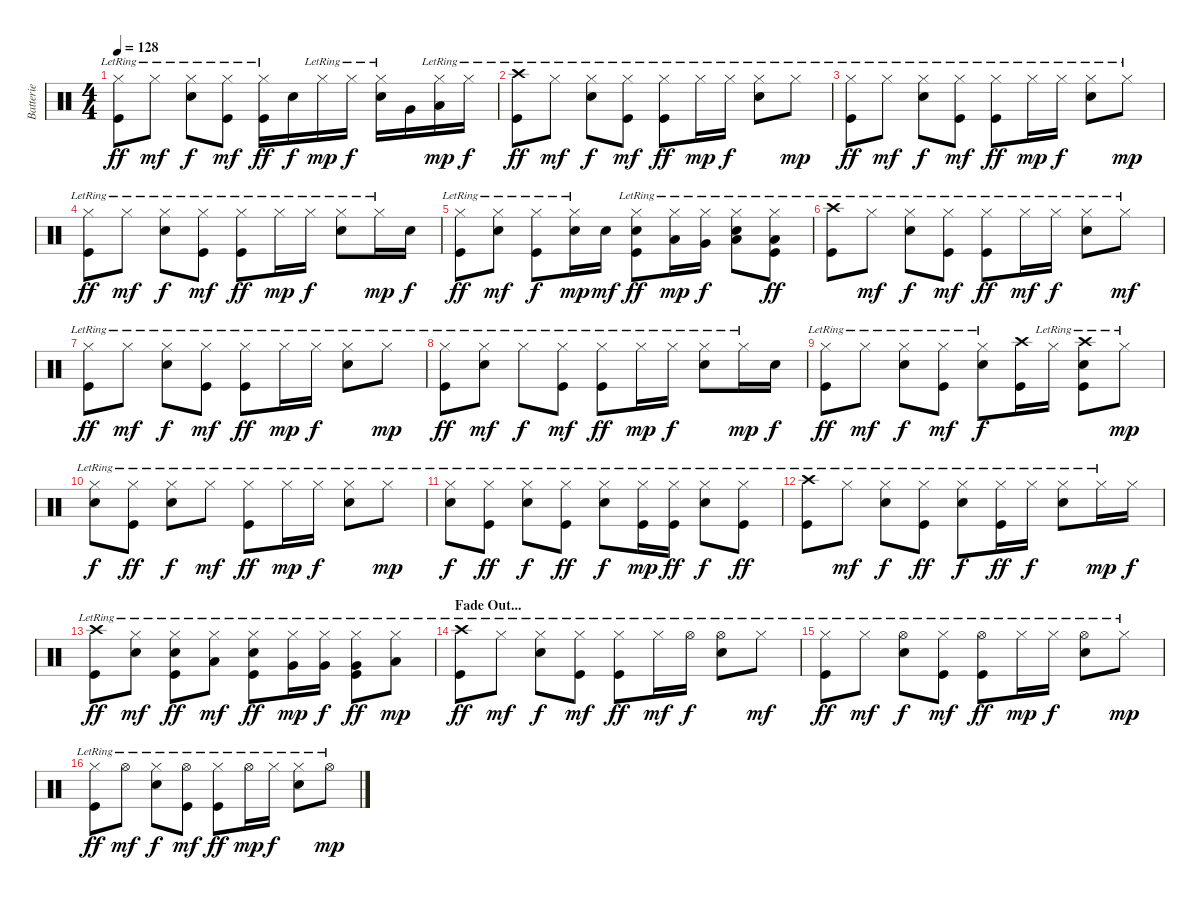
\track ("Batterie" "Batterie") {instrument percussion}
\staff {score}
\articulation defaults
\ts (4 4)
\tempo 128
\clef neutral
\ks c
("Hi-Hat (closed)"{lr} "Kick (hit)"{lr}).8{dy ff} "Hi-Hat (closed)"{lr}.8{dy mf} ("Hi-Hat (closed)"{lr} "Snare (hit) 2"{lr}).8{dy f} ("Hi-Hat (closed)"{lr} "Kick (hit)"{lr}).8{dy mf} ("Hi-Hat (closed)"{lr} "Kick (hit)"{lr}).16{dy ff} "Snare (hit) 2".16{dy f} "Hi-Hat (closed)"{lr}.16{dy mp} "Hi-Hat (closed)"{lr}.16{dy f} ("Hi-Hat (closed)"{lr} "Snare (hit) 2"{lr}).16 "Very Low Tom (hit)".16 ("Low Floor Tom (hit)" "Hi-Hat (closed)"{lr}).16{dy mp} "Hi-Hat (closed)"{lr}.16{dy f} |
("Crash high (hit)" "Kick (hit)"{lr}).8{dy ff} "Hi-Hat (closed)"{lr}.8{dy mf} ("Hi-Hat (closed)"{lr} "Snare (hit) 2"{lr}).8{dy f} ("Hi-Hat (closed)"{lr} "Kick (hit)"{lr}).8{dy mf} ("Hi-Hat (closed)"{lr} "Kick (hit)"{lr}).8{dy ff} "Hi-Hat (closed)"{lr}.16{dy mp} "Hi-Hat (closed)"{lr}.16{dy f} ("Hi-Hat (closed)"{lr} "Snare (hit) 2"{lr}).8 "Hi-Hat (closed)"{lr}.8{dy mp} |
("Hi-Hat (closed)"{lr} "Kick (hit)"{lr}).8{dy ff} "Hi-Hat (closed)"{lr}.8{dy mf} ("Hi-Hat (closed)"{lr} "Snare (hit) 2"{lr}).8{dy f} ("Hi-Hat (closed)"{lr} "Kick (hit)"{lr}).8{dy mf} ("Hi-Hat (closed)"{lr} "Kick (hit)"{lr}).8{dy ff} "Hi-Hat (closed)"{lr}.16{dy mp} "Hi-Hat (closed)"{lr}.16{dy f} ("Hi-Hat (closed)"{lr} "Snare (hit) 2"{lr}).8 "Hi-Hat (closed)"{lr}.8{dy mp} |
("Hi-Hat (closed)"{lr} "Kick (hit)"{lr}).8{dy ff} "Hi-Hat (closed)"{lr}.8{dy mf} ("Hi-Hat (closed)"{lr} "Snare (hit) 2"{lr}).8{dy f} ("Hi-Hat (closed)"{lr} "Kick (hit)"{lr}).8{dy mf} ("Hi-Hat (closed)"{lr} "Kick (hit)"{lr}).8{dy ff} "Hi-Hat (closed)"{lr}.16{dy mp} "Hi-Hat (closed)"{lr}.16{dy f} ("Hi-Hat (closed)"{lr} "Snare (hit) 2"{lr}).8 "Hi-Hat (closed)"{lr}.16{dy mp} "Snare (hit) 2".16{dy f} |
("Hi-Hat (closed)"{lr} "Kick (hit)"{lr}).8{dy ff} ("Hi-Hat (closed)"{lr} "Snare (hit) 2").8{dy mf} ("Hi-Hat (closed)"{lr} "Kick (hit)").8{dy f} ("Hi-Hat (closed)"{lr} "Snare (hit) 2").16{dy mp} "Snare (hit) 2".16{dy mf} ("Hi-Hat (closed)"{lr} "Snare (hit) 2" "Kick (hit)"{lr}).8{dy ff} ("Low Tom (hit)" "Hi-Hat (closed)"{lr}).16{dy mp} ("Very Low Tom (hit)" "Hi-Hat (closed)"{lr}).16{dy f} ("Low Floor Tom (hit)" "Hi-Hat (closed)"{lr} "Snare (hit) 2"{lr}).8 ("Low Floor Tom (hit)" "Hi-Hat (closed)"{lr} "Kick (hit)"{lr}).8{dy ff} |
("Crash high (hit)"{lr} "Kick (hit)"{lr}).8 "Hi-Hat (closed)"{lr}.8{dy mf} ("Hi-Hat (closed)"{lr} "Snare (hit) 2"{lr}).8{dy f} ("Hi-Hat (closed)"{lr} "Kick (hit)"{lr}).8{dy mf} ("Hi-Hat (closed)"{lr} "Kick (hit)"{lr}).8{dy ff} "Hi-Hat (closed)"{lr}.16{dy mf} "Hi-Hat (closed)"{lr}.16{dy f} ("Hi-Hat (closed)"{lr} "Snare (hit) 2"{lr}).8 "Hi-Hat (closed)"{lr}.8{dy mf} |
("Hi-Hat (closed)"{lr} "Kick (hit)"{lr}).8{dy ff} "Hi-Hat (closed)"{lr}.8{dy mf} ("Hi-Hat (closed)"{lr} "Snare (hit) 2"{lr}).8{dy f} ("Hi-Hat (closed)"{lr} "Kick (hit)"{lr}).8{dy mf} ("Hi-Hat (closed)"{lr} "Kick (hit)"{lr}).8{dy ff} "Hi-Hat (closed)"{lr}.16{dy mp} "Hi-Hat (closed)"{lr}.16{dy f} ("Hi-Hat (closed)"{lr} "Snare (hit) 2"{lr}).8 "Hi-Hat (closed)"{lr}.8{dy mp} |
("Hi-Hat (closed)"{lr} "Kick (hit)"{lr}).8{dy ff} ("Hi-Hat (closed)"{lr} "Snare (hit) 2").8{dy mf} "Hi-Hat (closed)"{lr}.8{dy f} ("Hi-Hat (closed)"{lr} "Kick (hit)"{lr}).8{dy mf} ("Hi-Hat (closed)"{lr} "Kick (hit)"{lr}).8{dy ff} "Hi-Hat (closed)"{lr}.16{dy mp} "Hi-Hat (closed)"{lr}.16{dy f} ("Hi-Hat (closed)"{lr} "Snare (hit) 2"{lr}).8 "Hi-Hat (closed)"{lr}.16{dy mp} "Snare (hit) 2".16{dy f} |
("Hi-Hat (closed)"{lr} "Kick (hit)"{lr}).8{dy ff} "Hi-Hat (closed)"{lr}.8{dy mf} ("Hi-Hat (closed)"{lr} "Snare (hit) 2"{lr}).8{dy f} ("Hi-Hat (closed)"{lr} "Kick (hit)"{lr}).8{dy mf} ("Hi-Hat (closed)"{lr} "Snare (hit) 2").8{dy f} ("Crash high (hit)" "Kick (hit)").16 "Hi-Hat (closed)"{lr}.16 ("Crash high (hit)" "Snare (hit) 2"{lr} "Kick (hit)").8 "Hi-Hat (closed)"{lr}.8{dy mp} |
("Hi-Hat (closed)"{lr} "Snare (hit) 2").8{dy f} ("Hi-Hat (closed)"{lr} "Kick (hit)").8{dy ff} ("Hi-Hat (closed)"{lr} "Snare (hit) 2"{lr}).8{dy f} "Hi-Hat (closed)"{lr}.8{dy mf} ("Hi-Hat (closed)"{lr} "Kick (hit)"{lr}).8{dy ff} "Hi-Hat (closed)"{lr}.16{dy mp} "Hi-Hat (closed)"{lr}.16{dy f} ("Hi-Hat (closed)"{lr} "Snare (hit) 2"{lr}).8 "Hi-Hat (closed)"{lr}.8{dy mp} |
("Hi-Hat (closed)"{lr} "Snare (hit) 2").8{dy f} ("Hi-Hat (closed)"{lr} "Kick (hit)").8{dy ff} ("Hi-Hat (closed)"{lr} "Snare (hit) 2"{lr}).8{dy f} ("Hi-Hat (closed)"{lr} "Kick (hit)"{lr}).8{dy ff} ("Hi-Hat (closed)"{lr} "Snare (hit) 2").8{dy f} ("Hi-Hat (closed)"{lr} "Kick (hit)").16{dy mp} ("Hi-Hat (closed)"{lr} "Kick (hit)").16{dy ff} ("Hi-Hat (closed)"{lr} "Snare (hit) 2"{lr}).8{dy f} ("Hi-Hat (closed)"{lr} "Kick (hit)").8{dy ff} |
("Crash high (hit)" "Kick (hit)"{lr}).8 "Hi-Hat (closed)"{lr}.8{dy mf} ("Hi-Hat (closed)"{lr} "Snare (hit) 2"{lr}).8{dy f} ("Hi-Hat (closed)"{lr} "Kick (hit)"{lr}).8{dy ff} ("Hi-Hat (closed)"{lr} "Snare (hit) 2").8{dy f} ("Hi-Hat (closed)"{lr} "Kick (hit)").16{dy ff} "Hi-Hat (closed)"{lr}.16{dy f} ("Hi-Hat (closed)"{lr} "Snare (hit) 2"{lr}).8 "Hi-Hat (closed)"{lr}.16{dy mp} "Hi-Hat (closed)".16{dy f} |
("Crash high (hit)"{lr} "Kick (hit)"{lr}).8{dy ff} ("Hi-Hat (closed)"{lr} "Snare (hit) 2").8{dy mf} ("Hi-Hat (closed)"{lr} "Snare (hit) 2" "Kick (hit)").8{dy ff} ("Low Tom (hit)" "Hi-Hat (closed)"{lr}).8{dy mf} ("Hi-Hat (closed)"{lr} "Snare (hit) 2" "Kick (hit)").8{dy ff} ("Very Low Tom (hit)" "Hi-Hat (closed)"{lr}).16{dy mp} ("Very Low Tom (hit)" "Hi-Hat (closed)"{lr}).16{dy f} ("Very Low Tom (hit)" "Hi-Hat (closed)"{lr} "Kick (hit)").8{dy ff} ("Low Floor Tom (hit)" "Hi-Hat (closed)"{lr}).8{dy mp} |
\section ("" "Fade Out...")
("Crash high (hit)"{lr} "Kick (hit)"{lr}).8{dy ff} "Hi-Hat (closed)"{lr}.8{dy mf} ("Hi-Hat (closed)"{lr} "Snare (hit) 2"{lr}).8{dy f} ("Hi-Hat (closed)"{lr} "Kick (hit)"{lr}).8{dy mf} ("Hi-Hat (closed)"{lr} "Kick (hit)"{lr}).8{dy ff} "Hi-Hat (closed)"{lr}.16{dy mf} "Hi-Hat (open)"{lr}.16{dy f} ("Hi-Hat (open)"{lr} "Snare (hit) 2"{lr}).8 "Hi-Hat (closed)"{lr}.8{dy mf} |
("Hi-Hat (closed)"{lr} "Kick (hit)"{lr}).8{dy ff} "Hi-Hat (closed)"{lr}.8{dy mf} ("Hi-Hat (open)"{lr} "Snare (hit) 2"{lr}).8{dy f} ("Hi-Hat (closed)"{lr} "Kick (hit)"{lr}).8{dy mf} ("Hi-Hat (open)"{lr} "Kick (hit)"{lr}).8{dy ff} "Hi-Hat (closed)"{lr}.16{dy mp} "Hi-Hat (closed)"{lr}.16{dy f} ("Hi-Hat (open)"{lr} "Snare (hit) 2"{lr}).8 "Hi-Hat (closed)"{lr}.8{dy mp} |
("Hi-Hat (closed)"{lr} "Kick (hit)"{lr}).8{dy ff} "Hi-Hat (open)"{lr}.8{dy mf} ("Hi-Hat (closed)"{lr} "Snare (hit) 2"{lr}).8{dy f} ("Hi-Hat (open)"{lr} "Kick (hit)"{lr}).8{dy mf} ("Hi-Hat (closed)"{lr} "Kick (hit)"{lr}).8{dy ff} "Hi-Hat (open)"{lr}.16{dy mp} "Hi-Hat (closed)"{lr}.16{dy f} ("Hi-Hat (closed)"{lr} "Snare (hit) 2"{lr}).8 "Hi-Hat (open)"{lr}.8{dy mp}
